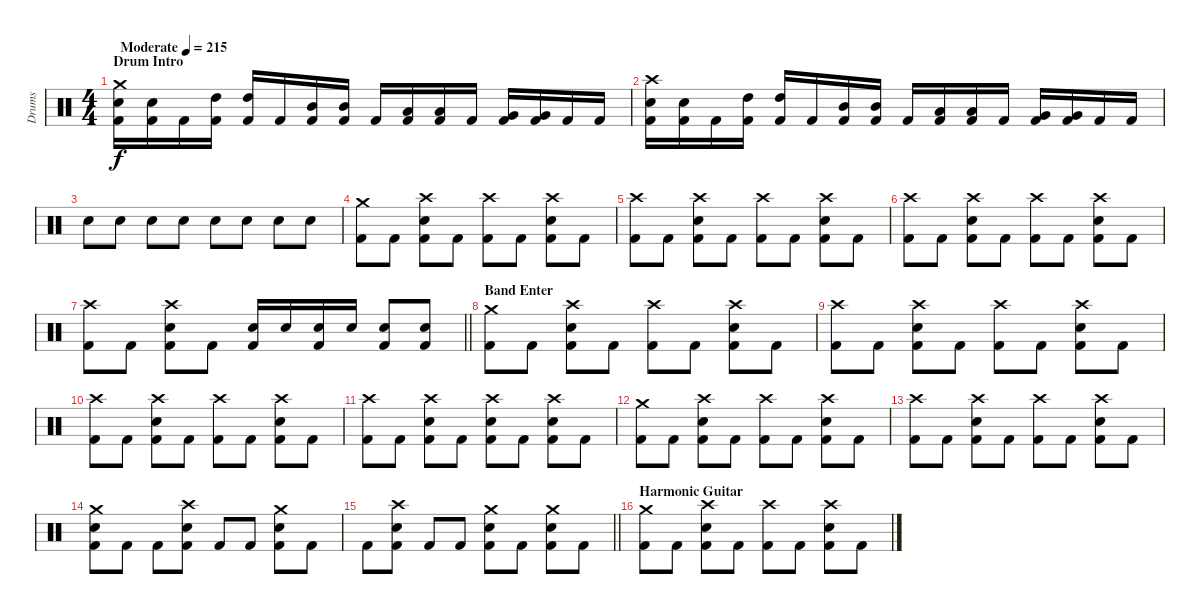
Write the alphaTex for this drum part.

\track ("Drums" "Drums") {instrument percussion}
\staff {score}
\articulation defaults
\ts (4 4)
\section ("" "Drum Intro")
\tempo (215 "Moderate")
\clef neutral
\ks c
("Crash medium (hit)" "Snare (hit) 2" "Kick (hit) 2").16{dy f} ("Snare (hit) 2" "Kick (hit) 2").16 "Kick (hit) 2".16 ("High Tom (hit)" "Kick (hit) 2").16 ("High Tom (hit)" "Kick (hit) 2").16 "Kick (hit) 2".16 ("Mid Tom (hit)" "Kick (hit) 2").16 ("Mid Tom (hit)" "Kick (hit) 2").16 "Kick (hit) 2".16 ("Low Tom (hit)" "Kick (hit) 2").16 ("Low Tom (hit)" "Kick (hit) 2").16 "Kick (hit) 2".16 ("Very Low Tom (hit)" "Kick (hit) 2").16 ("Very Low Tom (hit)" "Kick (hit) 2").16 "Kick (hit) 2".16 "Kick (hit) 2".16 |
("Crash high (hit)" "Snare (hit) 2" "Kick (hit) 2").16 ("Snare (hit) 2" "Kick (hit) 2").16 "Kick (hit) 2".16 ("High Tom (hit)" "Kick (hit) 2").16 ("High Tom (hit)" "Kick (hit) 2").16 "Kick (hit) 2".16 ("Mid Tom (hit)" "Kick (hit) 2").16 ("Mid Tom (hit)" "Kick (hit) 2").16 "Kick (hit) 2".16 ("Low Tom (hit)" "Kick (hit) 2").16 ("Low Tom (hit)" "Kick (hit) 2").16 "Kick (hit) 2".16 ("Very Low Tom (hit)" "Kick (hit) 2").16 ("Very Low Tom (hit)" "Kick (hit) 2").16 "Kick (hit) 2".16 "Kick (hit) 2".16 |
"Snare (hit) 2".8 "Snare (hit) 2".8 "Snare (hit) 2".8 "Snare (hit) 2".8 "Snare (hit) 2".8 "Snare (hit) 2".8 "Snare (hit) 2".8 "Snare (hit) 2".8 |
("Crash medium (hit)" "Kick (hit) 2").8 "Kick (hit) 2".8 ("Crash high (hit)" "Snare (hit) 2" "Kick (hit) 2").8 "Kick (hit) 2".8 ("Crash high (hit)" "Kick (hit) 2").8 "Kick (hit) 2".8 ("Crash high (hit)" "Snare (hit) 2" "Kick (hit) 2").8 "Kick (hit) 2".8 |
("Crash high (hit)" "Kick (hit) 2").8 "Kick (hit) 2".8 ("Crash high (hit)" "Snare (hit) 2" "Kick (hit) 2").8 "Kick (hit) 2".8 ("Crash high (hit)" "Kick (hit) 2").8 "Kick (hit) 2".8 ("Crash high (hit)" "Snare (hit) 2" "Kick (hit) 2").8 "Kick (hit) 2".8 |
("Crash high (hit)" "Kick (hit) 2").8 "Kick (hit) 2".8 ("Crash high (hit)" "Snare (hit) 2" "Kick (hit) 2").8 "Kick (hit) 2".8 ("Crash high (hit)" "Kick (hit) 2").8 "Kick (hit) 2".8 ("Crash high (hit)" "Snare (hit) 2" "Kick (hit) 2").8 "Kick (hit) 2".8 |
\barLineRight lightlight
("Crash high (hit)" "Kick (hit) 2").8 "Kick (hit) 2".8 ("Crash high (hit)" "Snare (hit) 2" "Kick (hit) 2").8 "Kick (hit) 2".8 ("Snare (hit) 2" "Kick (hit) 2").16 "Snare (hit) 2".16 ("Snare (hit) 2" "Kick (hit) 2").16 "Snare (hit) 2".16 ("Snare (hit) 2" "Kick (hit) 2").8 ("Snare (hit) 2" "Kick (hit) 2").8 |
\section ("" "Band Enter")
("Crash medium (hit)" "Kick (hit) 2").8 "Kick (hit) 2".8 ("Crash high (hit)" "Snare (hit) 2" "Kick (hit) 2").8 "Kick (hit) 2".8 ("Crash high (hit)" "Kick (hit) 2").8 "Kick (hit) 2".8 ("Crash high (hit)" "Snare (hit) 2" "Kick (hit) 2").8 "Kick (hit) 2".8 |
("Crash high (hit)" "Kick (hit) 2").8 "Kick (hit) 2".8 ("Crash high (hit)" "Snare (hit) 2" "Kick (hit) 2").8 "Kick (hit) 2".8 ("Crash high (hit)" "Kick (hit) 2").8 "Kick (hit) 2".8 ("Crash high (hit)" "Snare (hit) 2" "Kick (hit) 2").8 "Kick (hit) 2".8 |
("Crash high (hit)" "Kick (hit) 2").8 "Kick (hit) 2".8 ("Crash high (hit)" "Snare (hit) 2" "Kick (hit) 2").8 "Kick (hit) 2".8 ("Crash high (hit)" "Kick (hit) 2").8 "Kick (hit) 2".8 ("Crash high (hit)" "Snare (hit) 2" "Kick (hit) 2").8 "Kick (hit) 2".8 |
("Crash high (hit)" "Kick (hit) 2").8 "Kick (hit) 2".8 ("Crash high (hit)" "Snare (hit) 2" "Kick (hit) 2").8 "Kick (hit) 2".8 ("Crash high (hit)" "Snare (hit) 2" "Kick (hit) 2").8 "Kick (hit) 2".8 ("Crash high (hit)" "Snare (hit) 2" "Kick (hit) 2").8 "Kick (hit) 2".8 |
("Crash medium (hit)" "Kick (hit) 2").8 "Kick (hit) 2".8 ("Crash high (hit)" "Snare (hit) 2" "Kick (hit) 2").8 "Kick (hit) 2".8 ("Crash high (hit)" "Kick (hit) 2").8 "Kick (hit) 2".8 ("Crash high (hit)" "Snare (hit) 2" "Kick (hit) 2").8 "Kick (hit) 2".8 |
("Crash high (hit)" "Kick (hit) 2").8 "Kick (hit) 2".8 ("Crash high (hit)" "Snare (hit) 2" "Kick (hit) 2").8 "Kick (hit) 2".8 ("Crash high (hit)" "Kick (hit) 2").8 "Kick (hit) 2".8 ("Crash high (hit)" "Snare (hit) 2" "Kick (hit) 2").8 "Kick (hit) 2".8 |
("Crash medium (hit)" "Snare (hit) 2" "Kick (hit) 2").8 "Kick (hit) 2".8 "Kick (hit) 2".8 ("Crash high (hit)" "Snare (hit) 2" "Kick (hit) 2").8 "Kick (hit) 2".8 "Kick (hit) 2".8 ("Crash medium (hit)" "Snare (hit) 2" "Kick (hit) 2").8 "Kick (hit) 2".8 |
\barLineRight lightlight "Kick (hit) 2".8
("Crash high (hit)" "Snare (hit) 2" "Kick (hit) 2").8 "Kick (hit) 2".8 "Kick (hit) 2".8 ("Crash medium (hit)" "Snare (hit) 2" "Kick (hit) 2").8 "Kick (hit) 2".8 ("Crash medium (hit)" "Snare (hit) 2" "Kick (hit) 2").8 "Kick (hit) 2".8 |
\section ("" "Harmonic Guitar")
("Crash medium (hit)" "Kick (hit) 2").8 "Kick (hit) 2".8 ("Crash high (hit)" "Snare (hit) 2" "Kick (hit) 2").8 "Kick (hit) 2".8 ("Crash high (hit)" "Kick (hit) 2").8 "Kick (hit) 2".8 ("Crash high (hit)" "Snare (hit) 2" "Kick (hit) 2").8 "Kick (hit) 2".8
